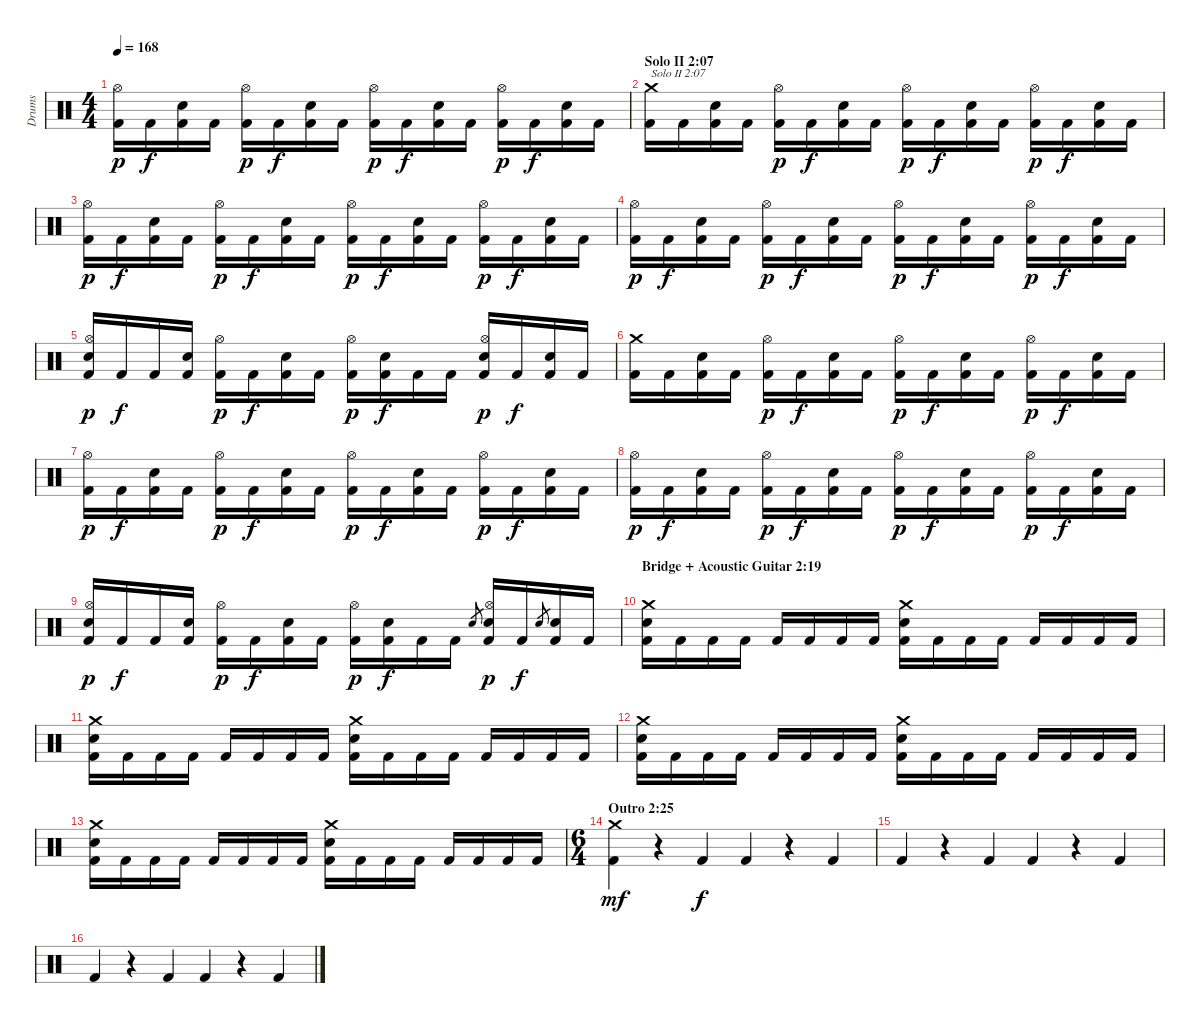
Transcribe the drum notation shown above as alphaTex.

\track ("Drums" "Drums") {instrument percussion}
\staff {score}
\articulation defaults
\ts (4 4)
\tempo 168
\clef neutral
\ks c
("Kick (hit) 2" "Hi-Hat (open)").16{dy p} "Kick (hit) 2".16{dy f} ("Kick (hit) 2" "Electric Snare (hit)").16 "Kick (hit) 2".16 ("Kick (hit) 2" "Hi-Hat (open)").16{dy p} "Kick (hit) 2".16{dy f} ("Kick (hit) 2" "Electric Snare (hit)").16 "Kick (hit) 2".16 ("Kick (hit) 2" "Hi-Hat (open)").16{dy p} "Kick (hit) 2".16{dy f} ("Kick (hit) 2" "Electric Snare (hit)").16 "Kick (hit) 2".16 ("Kick (hit) 2" "Hi-Hat (open)").16{dy p} "Kick (hit) 2".16{dy f} ("Kick (hit) 2" "Electric Snare (hit)").16 "Kick (hit) 2".16 |
\section ("" "Solo II 2:07")
("Kick (hit) 2" "Crash medium (hit)").16{txt "Solo II 2:07"} "Kick (hit) 2".16 ("Kick (hit) 2" "Electric Snare (hit)").16 "Kick (hit) 2".16 ("Kick (hit) 2" "Hi-Hat (open)").16{dy p} "Kick (hit) 2".16{dy f} ("Kick (hit) 2" "Electric Snare (hit)").16 "Kick (hit) 2".16 ("Kick (hit) 2" "Hi-Hat (open)").16{dy p} "Kick (hit) 2".16{dy f} ("Kick (hit) 2" "Electric Snare (hit)").16 "Kick (hit) 2".16 ("Kick (hit) 2" "Hi-Hat (open)").16{dy p} "Kick (hit) 2".16{dy f} ("Kick (hit) 2" "Electric Snare (hit)").16 "Kick (hit) 2".16 |
("Kick (hit) 2" "Hi-Hat (open)").16{dy p} "Kick (hit) 2".16{dy f} ("Kick (hit) 2" "Electric Snare (hit)").16 "Kick (hit) 2".16 ("Kick (hit) 2" "Hi-Hat (open)").16{dy p} "Kick (hit) 2".16{dy f} ("Kick (hit) 2" "Electric Snare (hit)").16 "Kick (hit) 2".16 ("Kick (hit) 2" "Hi-Hat (open)").16{dy p} "Kick (hit) 2".16{dy f} ("Kick (hit) 2" "Electric Snare (hit)").16 "Kick (hit) 2".16 ("Kick (hit) 2" "Hi-Hat (open)").16{dy p} "Kick (hit) 2".16{dy f} ("Kick (hit) 2" "Electric Snare (hit)").16 "Kick (hit) 2".16 |
("Kick (hit) 2" "Hi-Hat (open)").16{dy p} "Kick (hit) 2".16{dy f} ("Kick (hit) 2" "Electric Snare (hit)").16 "Kick (hit) 2".16 ("Kick (hit) 2" "Hi-Hat (open)").16{dy p} "Kick (hit) 2".16{dy f} ("Kick (hit) 2" "Electric Snare (hit)").16 "Kick (hit) 2".16 ("Kick (hit) 2" "Hi-Hat (open)").16{dy p} "Kick (hit) 2".16{dy f} ("Kick (hit) 2" "Electric Snare (hit)").16 "Kick (hit) 2".16 ("Kick (hit) 2" "Hi-Hat (open)").16{dy p} "Kick (hit) 2".16{dy f} ("Kick (hit) 2" "Electric Snare (hit)").16 "Kick (hit) 2".16 |
("Kick (hit) 2" "Electric Snare (hit)" "Hi-Hat (open)").16{dy p} "Kick (hit) 2".16{dy f} "Kick (hit) 2".16 ("Kick (hit) 2" "Electric Snare (hit)").16 ("Kick (hit) 2" "Hi-Hat (open)").16{dy p} "Kick (hit) 2".16{dy f} ("Kick (hit) 2" "Electric Snare (hit)").16 "Kick (hit) 2".16 ("Kick (hit) 2" "Hi-Hat (open)").16{dy p} ("Kick (hit) 2" "Electric Snare (hit)").16{dy f} "Kick (hit) 2".16 "Kick (hit) 2".16 ("Kick (hit) 2" "Electric Snare (hit)" "Hi-Hat (open)").16{dy p} "Kick (hit) 2".16{dy f} ("Kick (hit) 2" "Electric Snare (hit)").16 "Kick (hit) 2".16 |
("Kick (hit) 2" "Crash medium (hit)").16 "Kick (hit) 2".16 ("Kick (hit) 2" "Electric Snare (hit)").16 "Kick (hit) 2".16 ("Kick (hit) 2" "Hi-Hat (open)").16{dy p} "Kick (hit) 2".16{dy f} ("Kick (hit) 2" "Electric Snare (hit)").16 "Kick (hit) 2".16 ("Kick (hit) 2" "Hi-Hat (open)").16{dy p} "Kick (hit) 2".16{dy f} ("Kick (hit) 2" "Electric Snare (hit)").16 "Kick (hit) 2".16 ("Kick (hit) 2" "Hi-Hat (open)").16{dy p} "Kick (hit) 2".16{dy f} ("Kick (hit) 2" "Electric Snare (hit)").16 "Kick (hit) 2".16 |
("Kick (hit) 2" "Hi-Hat (open)").16{dy p} "Kick (hit) 2".16{dy f} ("Kick (hit) 2" "Electric Snare (hit)").16 "Kick (hit) 2".16 ("Kick (hit) 2" "Hi-Hat (open)").16{dy p} "Kick (hit) 2".16{dy f} ("Kick (hit) 2" "Electric Snare (hit)").16 "Kick (hit) 2".16 ("Kick (hit) 2" "Hi-Hat (open)").16{dy p} "Kick (hit) 2".16{dy f} ("Kick (hit) 2" "Electric Snare (hit)").16 "Kick (hit) 2".16 ("Kick (hit) 2" "Hi-Hat (open)").16{dy p} "Kick (hit) 2".16{dy f} ("Kick (hit) 2" "Electric Snare (hit)").16 "Kick (hit) 2".16 |
("Kick (hit) 2" "Hi-Hat (open)").16{dy p} "Kick (hit) 2".16{dy f} ("Kick (hit) 2" "Electric Snare (hit)").16 "Kick (hit) 2".16 ("Kick (hit) 2" "Hi-Hat (open)").16{dy p} "Kick (hit) 2".16{dy f} ("Kick (hit) 2" "Electric Snare (hit)").16 "Kick (hit) 2".16 ("Kick (hit) 2" "Hi-Hat (open)").16{dy p} "Kick (hit) 2".16{dy f} ("Kick (hit) 2" "Electric Snare (hit)").16 "Kick (hit) 2".16 ("Kick (hit) 2" "Hi-Hat (open)").16{dy p} "Kick (hit) 2".16{dy f} ("Kick (hit) 2" "Electric Snare (hit)").16 "Kick (hit) 2".16 |
("Kick (hit) 2" "Electric Snare (hit)" "Hi-Hat (open)").16{dy p} "Kick (hit) 2".16{dy f} "Kick (hit) 2".16 ("Kick (hit) 2" "Electric Snare (hit)").16 ("Kick (hit) 2" "Hi-Hat (open)").16{dy p} "Kick (hit) 2".16{dy f} ("Kick (hit) 2" "Electric Snare (hit)").16 "Kick (hit) 2".16 ("Kick (hit) 2" "Hi-Hat (open)").16{dy p} ("Kick (hit) 2" "Electric Snare (hit)").16{dy f} "Kick (hit) 2".16 "Kick (hit) 2".16 "Electric Snare (hit)".8{gr} ("Kick (hit) 2" "Electric Snare (hit)" "Hi-Hat (open)").16{dy p} "Kick (hit) 2".16{dy f} "Electric Snare (hit)".8{gr} ("Kick (hit) 2" "Electric Snare (hit)").16 "Kick (hit) 2".16 |
\section ("" "Bridge + Acoustic Guitar 2:19")
("Kick (hit) 2" "Electric Snare (hit)" "Crash medium (hit)").16 "Kick (hit) 2".16 "Kick (hit) 2".16 "Kick (hit) 2".16 "Kick (hit) 2".16 "Kick (hit) 2".16 "Kick (hit) 2".16 "Kick (hit) 2".16 ("Kick (hit) 2" "Electric Snare (hit)" "Crash medium (hit)").16 "Kick (hit) 2".16 "Kick (hit) 2".16 "Kick (hit) 2".16 "Kick (hit) 2".16 "Kick (hit) 2".16 "Kick (hit) 2".16 "Kick (hit) 2".16 |
("Kick (hit) 2" "Electric Snare (hit)" "Crash medium (hit)").16 "Kick (hit) 2".16 "Kick (hit) 2".16 "Kick (hit) 2".16 "Kick (hit) 2".16 "Kick (hit) 2".16 "Kick (hit) 2".16 "Kick (hit) 2".16 ("Kick (hit) 2" "Electric Snare (hit)" "Crash medium (hit)").16 "Kick (hit) 2".16 "Kick (hit) 2".16 "Kick (hit) 2".16 "Kick (hit) 2".16 "Kick (hit) 2".16 "Kick (hit) 2".16 "Kick (hit) 2".16 |
("Kick (hit) 2" "Electric Snare (hit)" "Crash medium (hit)").16 "Kick (hit) 2".16 "Kick (hit) 2".16 "Kick (hit) 2".16 "Kick (hit) 2".16 "Kick (hit) 2".16 "Kick (hit) 2".16 "Kick (hit) 2".16 ("Kick (hit) 2" "Electric Snare (hit)" "Crash medium (hit)").16 "Kick (hit) 2".16 "Kick (hit) 2".16 "Kick (hit) 2".16 "Kick (hit) 2".16 "Kick (hit) 2".16 "Kick (hit) 2".16 "Kick (hit) 2".16 |
("Kick (hit) 2" "Electric Snare (hit)" "Crash medium (hit)").16 "Kick (hit) 2".16 "Kick (hit) 2".16 "Kick (hit) 2".16 "Kick (hit) 2".16 "Kick (hit) 2".16 "Kick (hit) 2".16 "Kick (hit) 2".16 ("Kick (hit) 2" "Electric Snare (hit)" "Crash medium (hit)").16 "Kick (hit) 2".16 "Kick (hit) 2".16 "Kick (hit) 2".16 "Kick (hit) 2".16 "Kick (hit) 2".16 "Kick (hit) 2".16 "Kick (hit) 2".16 |
\ts (6 4)
\section ("" "Outro 2:25")
("Kick (hit) 2" "Crash medium (hit)").4{dy mf} r.4 "Kick (hit) 2".4{dy f} "Kick (hit) 2".4 r.4 "Kick (hit) 2".4 |
"Kick (hit) 2".4 r.4 "Kick (hit) 2".4 "Kick (hit) 2".4 r.4 "Kick (hit) 2".4 |
"Kick (hit) 2".4 r.4 "Kick (hit) 2".4 "Kick (hit) 2".4 r.4 "Kick (hit) 2".4
